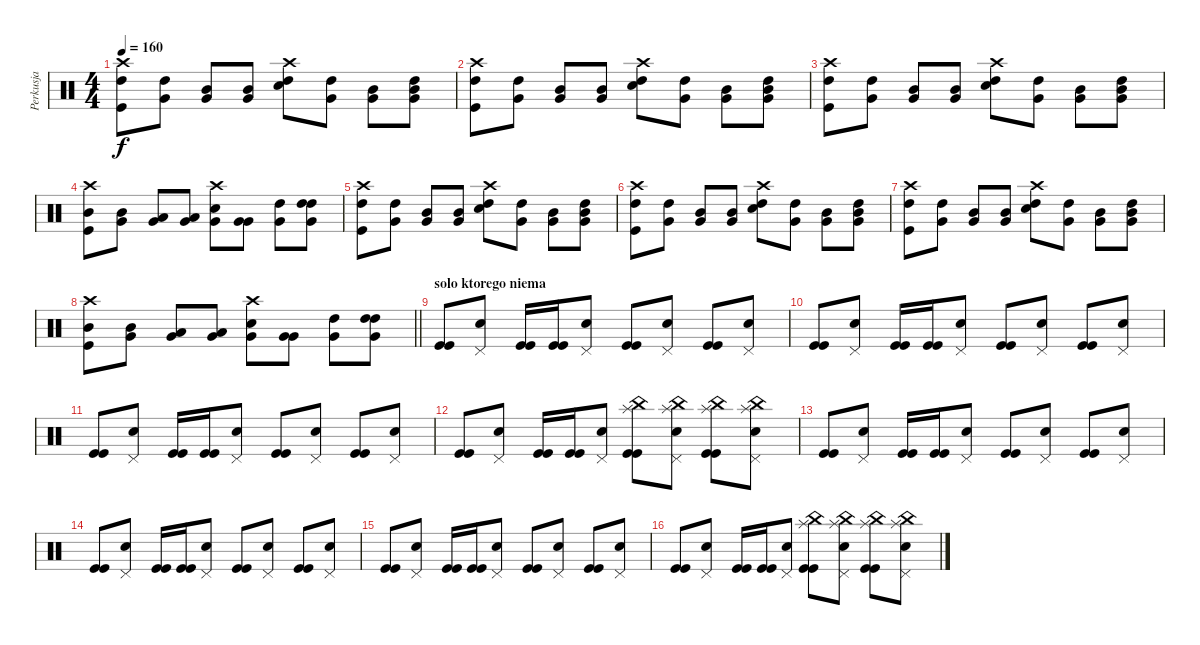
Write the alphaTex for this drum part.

\track ("Perkusja" "Perkusja") {instrument percussion}
\staff {score}
\articulation defaults
\ts (4 4)
\tempo 160
\clef neutral
\ks c
("Crash high (hit)" "Kick (hit)" "High Tom (hit)").8{dy f} ("Very Low Tom (hit)" "High Tom (hit)").8 ("Very Low Tom (hit)" "Mid Tom (hit)").8 ("Very Low Tom (hit)" "Mid Tom (hit)").8 ("Crash high (hit)" "Electric Snare (hit)" "High Tom (hit)").8 ("Very Low Tom (hit)" "High Tom (hit)").8 ("Very Low Tom (hit)" "Mid Tom (hit)").8 ("High Tom (hit)" "Very Low Tom (hit)" "Mid Tom (hit)").8 |
("Crash high (hit)" "Kick (hit)" "High Tom (hit)").8 ("Very Low Tom (hit)" "High Tom (hit)").8 ("Very Low Tom (hit)" "Mid Tom (hit)").8 ("Very Low Tom (hit)" "Mid Tom (hit)").8 ("Crash high (hit)" "Electric Snare (hit)" "High Tom (hit)").8 ("Very Low Tom (hit)" "High Tom (hit)").8 ("Very Low Tom (hit)" "Mid Tom (hit)").8 ("High Tom (hit)" "Very Low Tom (hit)" "Mid Tom (hit)").8 |
("Crash high (hit)" "Kick (hit)" "High Tom (hit)").8 ("Very Low Tom (hit)" "High Tom (hit)").8 ("Very Low Tom (hit)" "Mid Tom (hit)").8 ("Very Low Tom (hit)" "Mid Tom (hit)").8 ("Crash high (hit)" "Electric Snare (hit)" "High Tom (hit)").8 ("Very Low Tom (hit)" "High Tom (hit)").8 ("Very Low Tom (hit)" "Mid Tom (hit)").8 ("High Tom (hit)" "Very Low Tom (hit)" "Mid Tom (hit)").8 |
("Crash high (hit)" "Kick (hit)" "Mid Tom (hit)").8 ("Very Low Tom (hit)" "Mid Tom (hit)").8 ("Very Low Tom (hit)" "Low Tom (hit)").8 ("Very Low Tom (hit)" "Low Tom (hit)").8 ("Crash high (hit)" "Electric Snare (hit)" "Very Low Tom (hit)").8 ("Very Low Tom (hit)" "Very Low Tom (hit)").8 ("Very Low Tom (hit)" "High Tom (hit)").8 ("High Tom (hit)" "Very Low Tom (hit)" "High Tom (hit)").8 |
("Crash high (hit)" "Kick (hit)" "High Tom (hit)").8 ("Very Low Tom (hit)" "High Tom (hit)").8 ("Very Low Tom (hit)" "Mid Tom (hit)").8 ("Very Low Tom (hit)" "Mid Tom (hit)").8 ("Crash high (hit)" "Electric Snare (hit)" "High Tom (hit)").8 ("Very Low Tom (hit)" "High Tom (hit)").8 ("Very Low Tom (hit)" "Mid Tom (hit)").8 ("High Tom (hit)" "Very Low Tom (hit)" "Mid Tom (hit)").8 |
("Crash high (hit)" "Kick (hit)" "High Tom (hit)").8 ("Very Low Tom (hit)" "High Tom (hit)").8 ("Very Low Tom (hit)" "Mid Tom (hit)").8 ("Very Low Tom (hit)" "Mid Tom (hit)").8 ("Crash high (hit)" "Electric Snare (hit)" "High Tom (hit)").8 ("Very Low Tom (hit)" "High Tom (hit)").8 ("Very Low Tom (hit)" "Mid Tom (hit)").8 ("High Tom (hit)" "Very Low Tom (hit)" "Mid Tom (hit)").8 |
("Crash high (hit)" "Kick (hit)" "High Tom (hit)").8 ("Very Low Tom (hit)" "High Tom (hit)").8 ("Very Low Tom (hit)" "Mid Tom (hit)").8 ("Very Low Tom (hit)" "Mid Tom (hit)").8 ("Crash high (hit)" "Electric Snare (hit)" "High Tom (hit)").8 ("Very Low Tom (hit)" "High Tom (hit)").8 ("Very Low Tom (hit)" "Mid Tom (hit)").8 ("High Tom (hit)" "Very Low Tom (hit)" "Mid Tom (hit)").8 |
\barLineRight lightlight
("Crash high (hit)" "Kick (hit)" "Mid Tom (hit)").8 ("Very Low Tom (hit)" "Mid Tom (hit)").8 ("Very Low Tom (hit)" "Low Tom (hit)").8 ("Very Low Tom (hit)" "Low Tom (hit)").8 ("Crash high (hit)" "Electric Snare (hit)" "Very Low Tom (hit)").8 ("Very Low Tom (hit)" "Very Low Tom (hit)").8 ("Very Low Tom (hit)" "High Tom (hit)").8 ("High Tom (hit)" "Very Low Tom (hit)" "High Tom (hit)").8 |
\section ("" "solo ktorego niema")
("Kick (hit)" "Kick (hit)").8 ("Pedal Hi-Hat (hit)" "Snare (hit) 2").8 ("Kick (hit)" "Kick (hit)").16 ("Kick (hit)" "Kick (hit)").16 ("Pedal Hi-Hat (hit)" "Snare (hit) 2").8 ("Kick (hit)" "Kick (hit)").8 ("Pedal Hi-Hat (hit)" "Snare (hit) 2").8 ("Kick (hit)" "Kick (hit)").8 ("Pedal Hi-Hat (hit)" "Snare (hit) 2").8 |
("Kick (hit)" "Kick (hit)").8 ("Pedal Hi-Hat (hit)" "Snare (hit) 2").8 ("Kick (hit)" "Kick (hit)").16 ("Kick (hit)" "Kick (hit)").16 ("Pedal Hi-Hat (hit)" "Snare (hit) 2").8 ("Kick (hit)" "Kick (hit)").8 ("Pedal Hi-Hat (hit)" "Snare (hit) 2").8 ("Kick (hit)" "Kick (hit)").8 ("Pedal Hi-Hat (hit)" "Snare (hit) 2").8 |
("Kick (hit)" "Kick (hit)").8 ("Pedal Hi-Hat (hit)" "Snare (hit) 2").8 ("Kick (hit)" "Kick (hit)").16 ("Kick (hit)" "Kick (hit)").16 ("Pedal Hi-Hat (hit)" "Snare (hit) 2").8 ("Kick (hit)" "Kick (hit)").8 ("Pedal Hi-Hat (hit)" "Snare (hit) 2").8 ("Kick (hit)" "Kick (hit)").8 ("Pedal Hi-Hat (hit)" "Snare (hit) 2").8 |
("Kick (hit)" "Kick (hit)").8 ("Pedal Hi-Hat (hit)" "Snare (hit) 2").8 ("Kick (hit)" "Kick (hit)").16 ("Kick (hit)" "Kick (hit)").16 ("Pedal Hi-Hat (hit)" "Snare (hit) 2").8 ("China (hit)" "Splash (hit)" "Kick (hit)" "Kick (hit)").8 ("China (hit)" "Splash (hit)" "Pedal Hi-Hat (hit)" "Snare (hit) 2").8 ("China (hit)" "Splash (hit)" "Kick (hit)" "Kick (hit)").8 ("China (hit)" "Splash (hit)" "Pedal Hi-Hat (hit)" "Snare (hit) 2").8 |
("Kick (hit)" "Kick (hit)").8 ("Pedal Hi-Hat (hit)" "Snare (hit) 2").8 ("Kick (hit)" "Kick (hit)").16 ("Kick (hit)" "Kick (hit)").16 ("Pedal Hi-Hat (hit)" "Snare (hit) 2").8 ("Kick (hit)" "Kick (hit)").8 ("Pedal Hi-Hat (hit)" "Snare (hit) 2").8 ("Kick (hit)" "Kick (hit)").8 ("Pedal Hi-Hat (hit)" "Snare (hit) 2").8 |
("Kick (hit)" "Kick (hit)").8 ("Pedal Hi-Hat (hit)" "Snare (hit) 2").8 ("Kick (hit)" "Kick (hit)").16 ("Kick (hit)" "Kick (hit)").16 ("Pedal Hi-Hat (hit)" "Snare (hit) 2").8 ("Kick (hit)" "Kick (hit)").8 ("Pedal Hi-Hat (hit)" "Snare (hit) 2").8 ("Kick (hit)" "Kick (hit)").8 ("Pedal Hi-Hat (hit)" "Snare (hit) 2").8 |
("Kick (hit)" "Kick (hit)").8 ("Pedal Hi-Hat (hit)" "Snare (hit) 2").8 ("Kick (hit)" "Kick (hit)").16 ("Kick (hit)" "Kick (hit)").16 ("Pedal Hi-Hat (hit)" "Snare (hit) 2").8 ("Kick (hit)" "Kick (hit)").8 ("Pedal Hi-Hat (hit)" "Snare (hit) 2").8 ("Kick (hit)" "Kick (hit)").8 ("Pedal Hi-Hat (hit)" "Snare (hit) 2").8 |
("Kick (hit)" "Kick (hit)").8 ("Pedal Hi-Hat (hit)" "Snare (hit) 2").8 ("Kick (hit)" "Kick (hit)").16 ("Kick (hit)" "Kick (hit)").16 ("Pedal Hi-Hat (hit)" "Snare (hit) 2").8 ("China (hit)" "Splash (hit)" "Kick (hit)" "Kick (hit)").8 ("China (hit)" "Splash (hit)" "Pedal Hi-Hat (hit)" "Snare (hit) 2").8 ("China (hit)" "Splash (hit)" "Kick (hit)" "Kick (hit)").8 ("China (hit)" "Splash (hit)" "Pedal Hi-Hat (hit)" "Snare (hit) 2").8
